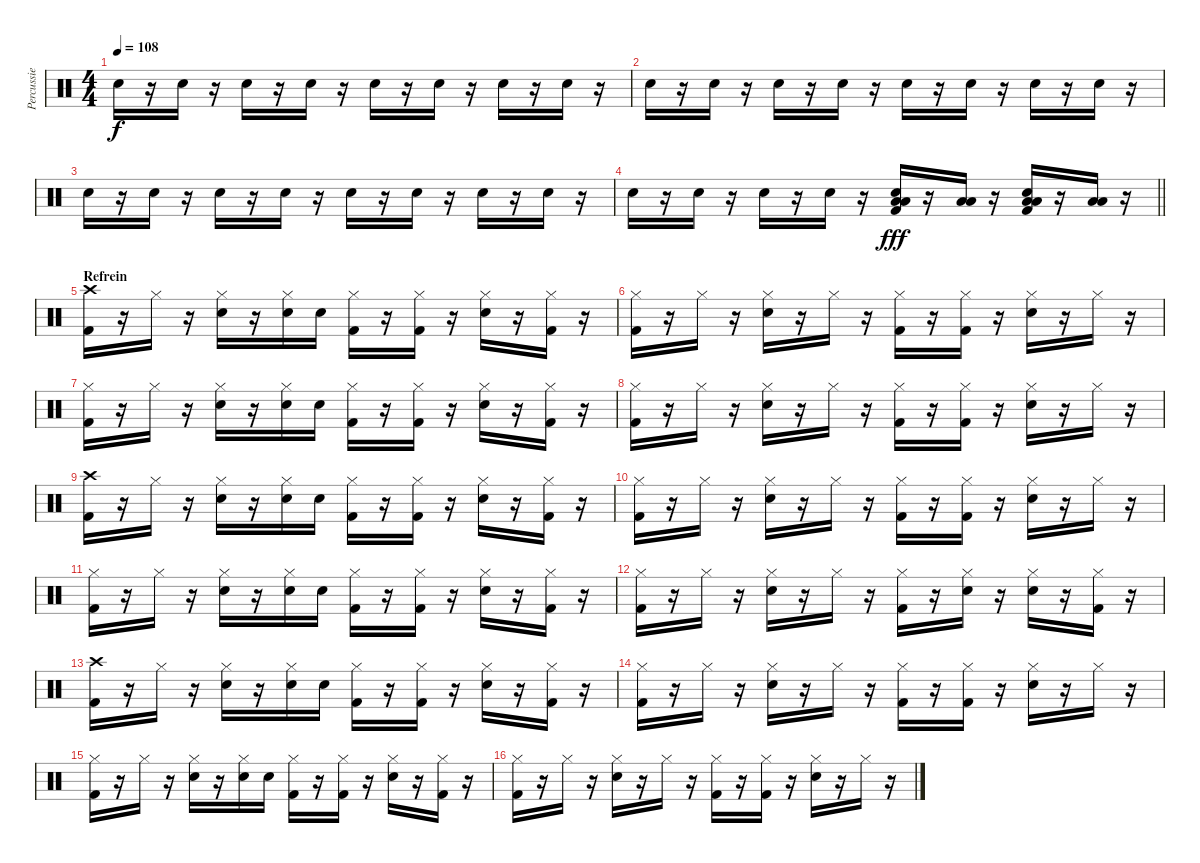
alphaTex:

\track ("Percussie" "Percussie") {instrument percussion}
\staff {score}
\articulation defaults
\ts (4 4)
\tempo 108
\clef neutral
\ks c "Snare (hit) 2".16{dy f}
r.16 "Snare (hit) 2".16 r.16 "Snare (hit) 2".16 r.16 "Snare (hit) 2".16 r.16 "Snare (hit) 2".16 r.16 "Snare (hit) 2".16 r.16 "Snare (hit) 2".16 r.16 "Snare (hit) 2".16 r.16 |
"Snare (hit) 2".16 r.16 "Snare (hit) 2".16 r.16 "Snare (hit) 2".16 r.16 "Snare (hit) 2".16 r.16 "Snare (hit) 2".16 r.16 "Snare (hit) 2".16 r.16 "Snare (hit) 2".16 r.16 "Snare (hit) 2".16 r.16 |
"Snare (hit) 2".16 r.16 "Snare (hit) 2".16 r.16 "Snare (hit) 2".16 r.16 "Snare (hit) 2".16 r.16 "Snare (hit) 2".16 r.16 "Snare (hit) 2".16 r.16 "Snare (hit) 2".16 r.16 "Snare (hit) 2".16 r.16 |
\barLineRight lightlight "Snare (hit) 2".16
r.16 "Snare (hit) 2".16 r.16 "Snare (hit) 2".16 r.16 "Snare (hit) 2".16 r.16 ("Low Floor Tom (hit)" "Low Tom (hit)" "Snare (hit) 2" "Kick (hit) 2").16{dy fff} r.16 ("Low Floor Tom (hit)" "Low Tom (hit)").16 r.16 ("Low Floor Tom (hit)" "Low Tom (hit)" "Snare (hit) 2" "Kick (hit) 2").16 r.16 ("Low Floor Tom (hit)" "Low Tom (hit)").16 r.16 |
\section ("" "Refrein")
("Crash high (hit)" "Kick (hit) 2").16 r.16 "Hi-Hat (closed)".16 r.16 ("Hi-Hat (closed)" "Snare (hit) 2").16 r.16 ("Hi-Hat (closed)" "Snare (hit) 2").16 "Snare (hit) 2".16 ("Hi-Hat (closed)" "Kick (hit) 2").16 r.16 ("Hi-Hat (closed)" "Kick (hit) 2").16 r.16 ("Hi-Hat (closed)" "Snare (hit) 2").16 r.16 ("Hi-Hat (closed)" "Kick (hit) 2").16 r.16 |
("Hi-Hat (closed)" "Kick (hit) 2").16 r.16 "Hi-Hat (closed)".16 r.16 ("Hi-Hat (closed)" "Snare (hit) 2").16 r.16 "Hi-Hat (closed)".16 r.16 ("Hi-Hat (closed)" "Kick (hit) 2").16 r.16 ("Hi-Hat (closed)" "Kick (hit) 2").16 r.16 ("Hi-Hat (closed)" "Snare (hit) 2").16 r.16 "Hi-Hat (closed)".16 r.16 |
("Hi-Hat (closed)" "Kick (hit) 2").16 r.16 "Hi-Hat (closed)".16 r.16 ("Hi-Hat (closed)" "Snare (hit) 2").16 r.16 ("Hi-Hat (closed)" "Snare (hit) 2").16 "Snare (hit) 2".16 ("Hi-Hat (closed)" "Kick (hit) 2").16 r.16 ("Hi-Hat (closed)" "Kick (hit) 2").16 r.16 ("Hi-Hat (closed)" "Snare (hit) 2").16 r.16 ("Hi-Hat (closed)" "Kick (hit) 2").16 r.16 |
("Hi-Hat (closed)" "Kick (hit) 2").16 r.16 "Hi-Hat (closed)".16 r.16 ("Hi-Hat (closed)" "Snare (hit) 2").16 r.16 "Hi-Hat (closed)".16 r.16 ("Hi-Hat (closed)" "Kick (hit) 2").16 r.16 ("Hi-Hat (closed)" "Kick (hit) 2").16 r.16 ("Hi-Hat (closed)" "Snare (hit) 2").16 r.16 "Hi-Hat (closed)".16 r.16 |
("Crash high (hit)" "Kick (hit) 2").16 r.16 "Hi-Hat (closed)".16 r.16 ("Hi-Hat (closed)" "Snare (hit) 2").16 r.16 ("Hi-Hat (closed)" "Snare (hit) 2").16 "Snare (hit) 2".16 ("Hi-Hat (closed)" "Kick (hit) 2").16 r.16 ("Hi-Hat (closed)" "Kick (hit) 2").16 r.16 ("Hi-Hat (closed)" "Snare (hit) 2").16 r.16 ("Hi-Hat (closed)" "Kick (hit) 2").16 r.16 |
("Hi-Hat (closed)" "Kick (hit) 2").16 r.16 "Hi-Hat (closed)".16 r.16 ("Hi-Hat (closed)" "Snare (hit) 2").16 r.16 "Hi-Hat (closed)".16 r.16 ("Hi-Hat (closed)" "Kick (hit) 2").16 r.16 ("Hi-Hat (closed)" "Kick (hit) 2").16 r.16 ("Hi-Hat (closed)" "Snare (hit) 2").16 r.16 "Hi-Hat (closed)".16 r.16 |
("Hi-Hat (closed)" "Kick (hit) 2").16 r.16 "Hi-Hat (closed)".16 r.16 ("Hi-Hat (closed)" "Snare (hit) 2").16 r.16 ("Hi-Hat (closed)" "Snare (hit) 2").16 "Snare (hit) 2".16 ("Hi-Hat (closed)" "Kick (hit) 2").16 r.16 ("Hi-Hat (closed)" "Kick (hit) 2").16 r.16 ("Hi-Hat (closed)" "Snare (hit) 2").16 r.16 ("Hi-Hat (closed)" "Kick (hit) 2").16 r.16 |
("Hi-Hat (closed)" "Kick (hit) 2").16 r.16 "Hi-Hat (closed)".16 r.16 ("Hi-Hat (closed)" "Snare (hit) 2").16 r.16 "Hi-Hat (closed)".16 r.16 ("Hi-Hat (closed)" "Kick (hit) 2").16 r.16 ("Hi-Hat (closed)" "Snare (hit) 2").16 r.16 ("Hi-Hat (closed)" "Snare (hit) 2").16 r.16 ("Hi-Hat (closed)" "Kick (hit) 2").16 r.16 |
("Crash high (hit)" "Kick (hit) 2").16 r.16 "Hi-Hat (closed)".16 r.16 ("Hi-Hat (closed)" "Snare (hit) 2").16 r.16 ("Hi-Hat (closed)" "Snare (hit) 2").16 "Snare (hit) 2".16 ("Hi-Hat (closed)" "Kick (hit) 2").16 r.16 ("Hi-Hat (closed)" "Kick (hit) 2").16 r.16 ("Hi-Hat (closed)" "Snare (hit) 2").16 r.16 ("Hi-Hat (closed)" "Kick (hit) 2").16 r.16 |
("Hi-Hat (closed)" "Kick (hit) 2").16 r.16 "Hi-Hat (closed)".16 r.16 ("Hi-Hat (closed)" "Snare (hit) 2").16 r.16 "Hi-Hat (closed)".16 r.16 ("Hi-Hat (closed)" "Kick (hit) 2").16 r.16 ("Hi-Hat (closed)" "Kick (hit) 2").16 r.16 ("Hi-Hat (closed)" "Snare (hit) 2").16 r.16 "Hi-Hat (closed)".16 r.16 |
("Hi-Hat (closed)" "Kick (hit) 2").16 r.16 "Hi-Hat (closed)".16 r.16 ("Hi-Hat (closed)" "Snare (hit) 2").16 r.16 ("Hi-Hat (closed)" "Snare (hit) 2").16 "Snare (hit) 2".16 ("Hi-Hat (closed)" "Kick (hit) 2").16 r.16 ("Hi-Hat (closed)" "Kick (hit) 2").16 r.16 ("Hi-Hat (closed)" "Snare (hit) 2").16 r.16 ("Hi-Hat (closed)" "Kick (hit) 2").16 r.16 |
("Hi-Hat (closed)" "Kick (hit) 2").16 r.16 "Hi-Hat (closed)".16 r.16 ("Hi-Hat (closed)" "Snare (hit) 2").16 r.16 "Hi-Hat (closed)".16 r.16 ("Hi-Hat (closed)" "Kick (hit) 2").16 r.16 ("Hi-Hat (closed)" "Kick (hit) 2").16 r.16 ("Hi-Hat (closed)" "Snare (hit) 2").16 r.16 "Hi-Hat (closed)".16 r.16
